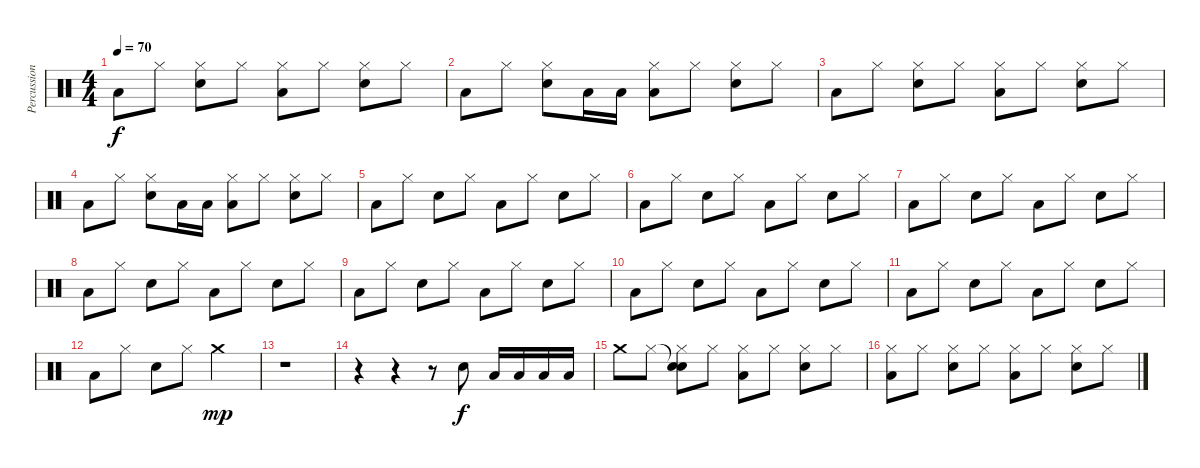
\track ("Percussion" "Percussion") {instrument percussion}
\staff {score}
\articulation defaults
\ts (4 4)
\tempo 70
\clef neutral
\ks c "Low Floor Tom (hit)".8{dy f} "Hi-Hat (closed)".8
("Snare (hit) 2" "Hi-Hat (closed)").8 "Hi-Hat (closed)".8 ("Low Floor Tom (hit)" "Hi-Hat (closed)").8 "Hi-Hat (closed)".8 ("Snare (hit) 2" "Hi-Hat (closed)").8 "Hi-Hat (closed)".8 |
"Low Floor Tom (hit)".8 "Hi-Hat (closed)".8 ("Snare (hit) 2" "Hi-Hat (closed)").8 "Low Floor Tom (hit)".16 "Low Floor Tom (hit)".16 ("Low Floor Tom (hit)" "Hi-Hat (closed)").8 "Hi-Hat (closed)".8 ("Hi-Hat (closed)" "Snare (hit) 2").8 "Hi-Hat (closed)".8 |
"Low Floor Tom (hit)".8 "Hi-Hat (closed)".8 ("Snare (hit) 2" "Hi-Hat (closed)").8 "Hi-Hat (closed)".8 ("Low Floor Tom (hit)" "Hi-Hat (closed)").8 "Hi-Hat (closed)".8 ("Snare (hit) 2" "Hi-Hat (closed)").8 "Hi-Hat (closed)".8 |
"Low Floor Tom (hit)".8 "Hi-Hat (closed)".8 ("Snare (hit) 2" "Hi-Hat (closed)").8 "Low Floor Tom (hit)".16 "Low Floor Tom (hit)".16 ("Low Floor Tom (hit)" "Hi-Hat (closed)").8 "Hi-Hat (closed)".8 ("Hi-Hat (closed)" "Snare (hit) 2").8 "Hi-Hat (closed)".8 |
"Low Floor Tom (hit)".8 "Hi-Hat (closed)".8 "Snare (hit) 2".8 "Hi-Hat (closed)".8 "Low Floor Tom (hit)".8 "Hi-Hat (closed)".8 "Snare (hit) 2".8 "Hi-Hat (closed)".8 |
"Low Floor Tom (hit)".8 "Hi-Hat (closed)".8 "Snare (hit) 2".8 "Hi-Hat (closed)".8 "Low Floor Tom (hit)".8 "Hi-Hat (closed)".8 "Snare (hit) 2".8 "Hi-Hat (closed)".8 |
"Low Floor Tom (hit)".8 "Hi-Hat (closed)".8 "Snare (hit) 2".8 "Hi-Hat (closed)".8 "Low Floor Tom (hit)".8 "Hi-Hat (closed)".8 "Snare (hit) 2".8 "Hi-Hat (closed)".8 |
"Low Floor Tom (hit)".8 "Hi-Hat (closed)".8 "Snare (hit) 2".8 "Hi-Hat (closed)".8 "Low Floor Tom (hit)".8 "Hi-Hat (closed)".8 "Snare (hit) 2".8 "Hi-Hat (closed)".8 |
"Low Floor Tom (hit)".8 "Hi-Hat (closed)".8 "Snare (hit) 2".8 "Hi-Hat (closed)".8 "Low Floor Tom (hit)".8 "Hi-Hat (closed)".8 "Snare (hit) 2".8 "Hi-Hat (closed)".8 |
"Low Floor Tom (hit)".8 "Hi-Hat (closed)".8 "Snare (hit) 2".8 "Hi-Hat (closed)".8 "Low Floor Tom (hit)".8 "Hi-Hat (closed)".8 "Snare (hit) 2".8 "Hi-Hat (closed)".8 |
"Low Floor Tom (hit)".8 "Hi-Hat (closed)".8 "Snare (hit) 2".8 "Hi-Hat (closed)".8 "Low Floor Tom (hit)".8 "Hi-Hat (closed)".8 "Snare (hit) 2".8 "Hi-Hat (closed)".8 |
"Low Floor Tom (hit)".8 "Hi-Hat (closed)".8 "Snare (hit) 2".8 "Hi-Hat (closed)".8 "Crash medium (hit)".2{dy mp} |
r.1 |
r.4 r.4 r.8 "Snare (hit) 2".8{dy f} "Low Floor Tom (hit)".16 "Low Floor Tom (hit)".16 "Low Floor Tom (hit)".16 "Low Floor Tom (hit)".16 |
"Crash medium (hit)".8 "Hi-Hat (closed)".8 ("Snare (hit) 2"{t} "Hi-Hat (closed)" "Snare (hit) 2").8 "Hi-Hat (closed)".8 ("Hi-Hat (closed)" "Low Floor Tom (hit)").8 "Hi-Hat (closed)".8 ("Hi-Hat (closed)" "Snare (hit) 2").8 "Hi-Hat (closed)".8 |
("Low Floor Tom (hit)" "Hi-Hat (closed)").8 "Hi-Hat (closed)".8 ("Snare (hit) 2" "Hi-Hat (closed)").8 "Hi-Hat (closed)".8 ("Low Floor Tom (hit)" "Hi-Hat (closed)").8 "Hi-Hat (closed)".8 ("Snare (hit) 2" "Hi-Hat (closed)").8 "Hi-Hat (closed)".8
